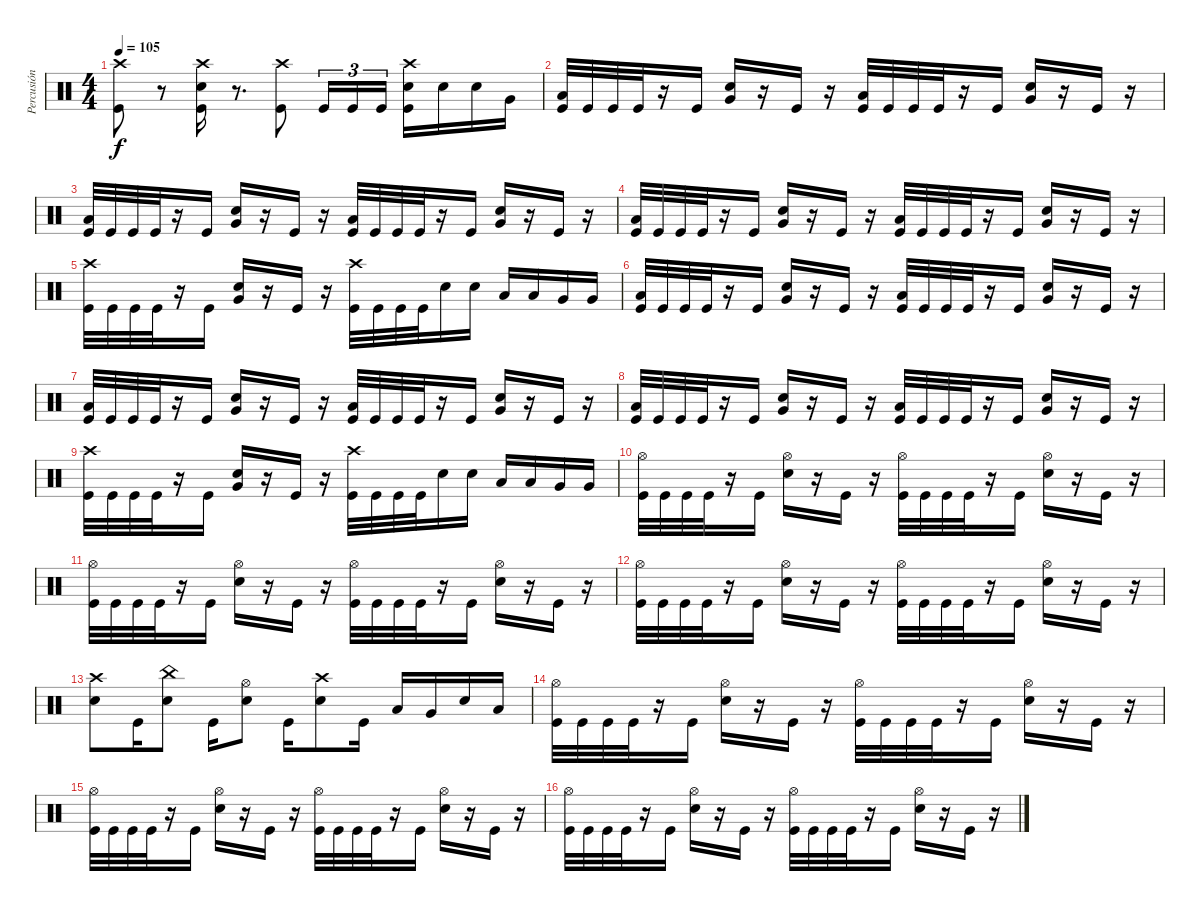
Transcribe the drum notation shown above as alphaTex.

\track ("Percusión" "Percusión") {instrument percussion}
\staff {score}
\articulation defaults
\ts (4 4)
\tempo 105
\clef neutral
\ks c
("Crash high (hit)" "Kick (hit)").8{dy f} r.8 ("Crash high (hit)" "Snare (hit) 2" "Kick (hit)").16 r.8{d} ("Crash high (hit)" "Kick (hit)").8 "Kick (hit)".16{tu (3 2)} "Kick (hit)".16{tu (3 2)} "Kick (hit)".16{tu (3 2)} ("Crash high (hit)" "Snare (hit) 2" "Kick (hit)").16 "Snare (hit) 2".16 "Snare (hit) 2".16 "Very Low Tom (hit)".16 |
("Low Floor Tom (hit)" "Kick (hit)").32 "Kick (hit)".32 "Kick (hit)".32 "Kick (hit)".32 r.16 "Kick (hit)".16 ("Snare (hit) 2" "Very Low Tom (hit)").16 r.16 "Kick (hit)".16 r.16 ("Low Floor Tom (hit)" "Kick (hit)").32 "Kick (hit)".32 "Kick (hit)".32 "Kick (hit)".32 r.16 "Kick (hit)".16 ("Snare (hit) 2" "Very Low Tom (hit)").16 r.16 "Kick (hit)".16 r.16 |
("Low Floor Tom (hit)" "Kick (hit)").32 "Kick (hit)".32 "Kick (hit)".32 "Kick (hit)".32 r.16 "Kick (hit)".16 ("Snare (hit) 2" "Very Low Tom (hit)").16 r.16 "Kick (hit)".16 r.16 ("Low Floor Tom (hit)" "Kick (hit)").32 "Kick (hit)".32 "Kick (hit)".32 "Kick (hit)".32 r.16 "Kick (hit)".16 ("Snare (hit) 2" "Very Low Tom (hit)").16 r.16 "Kick (hit)".16 r.16 |
("Low Floor Tom (hit)" "Kick (hit)").32 "Kick (hit)".32 "Kick (hit)".32 "Kick (hit)".32 r.16 "Kick (hit)".16 ("Snare (hit) 2" "Very Low Tom (hit)").16 r.16 "Kick (hit)".16 r.16 ("Low Floor Tom (hit)" "Kick (hit)").32 "Kick (hit)".32 "Kick (hit)".32 "Kick (hit)".32 r.16 "Kick (hit)".16 ("Snare (hit) 2" "Very Low Tom (hit)").16 r.16 "Kick (hit)".16 r.16 |
("Crash high (hit)" "Kick (hit)").32 "Kick (hit)".32 "Kick (hit)".32 "Kick (hit)".32 r.16 "Kick (hit)".16 ("Snare (hit) 2" "Very Low Tom (hit)").16 r.16 "Kick (hit)".16 r.16 ("Crash high (hit)" "Kick (hit)").32 "Kick (hit)".32 "Kick (hit)".32 "Kick (hit)".32 "Snare (hit) 2".16 "Snare (hit) 2".16 "Low Floor Tom (hit)".16 "Low Floor Tom (hit)".16 "Very Low Tom (hit)".16 "Very Low Tom (hit)".16 |
("Low Floor Tom (hit)" "Kick (hit)").32 "Kick (hit)".32 "Kick (hit)".32 "Kick (hit)".32 r.16 "Kick (hit)".16 ("Snare (hit) 2" "Very Low Tom (hit)").16 r.16 "Kick (hit)".16 r.16 ("Low Floor Tom (hit)" "Kick (hit)").32 "Kick (hit)".32 "Kick (hit)".32 "Kick (hit)".32 r.16 "Kick (hit)".16 ("Snare (hit) 2" "Very Low Tom (hit)").16 r.16 "Kick (hit)".16 r.16 |
("Low Floor Tom (hit)" "Kick (hit)").32 "Kick (hit)".32 "Kick (hit)".32 "Kick (hit)".32 r.16 "Kick (hit)".16 ("Snare (hit) 2" "Very Low Tom (hit)").16 r.16 "Kick (hit)".16 r.16 ("Low Floor Tom (hit)" "Kick (hit)").32 "Kick (hit)".32 "Kick (hit)".32 "Kick (hit)".32 r.16 "Kick (hit)".16 ("Snare (hit) 2" "Very Low Tom (hit)").16 r.16 "Kick (hit)".16 r.16 |
("Low Floor Tom (hit)" "Kick (hit)").32 "Kick (hit)".32 "Kick (hit)".32 "Kick (hit)".32 r.16 "Kick (hit)".16 ("Snare (hit) 2" "Very Low Tom (hit)").16 r.16 "Kick (hit)".16 r.16 ("Low Floor Tom (hit)" "Kick (hit)").32 "Kick (hit)".32 "Kick (hit)".32 "Kick (hit)".32 r.16 "Kick (hit)".16 ("Snare (hit) 2" "Very Low Tom (hit)").16 r.16 "Kick (hit)".16 r.16 |
("Crash high (hit)" "Kick (hit)").32 "Kick (hit)".32 "Kick (hit)".32 "Kick (hit)".32 r.16 "Kick (hit)".16 ("Snare (hit) 2" "Very Low Tom (hit)").16 r.16 "Kick (hit)".16 r.16 ("Crash high (hit)" "Kick (hit)").32 "Kick (hit)".32 "Kick (hit)".32 "Kick (hit)".32 "Snare (hit) 2".16 "Snare (hit) 2".16 "Low Floor Tom (hit)".16 "Low Floor Tom (hit)".16 "Very Low Tom (hit)".16 "Very Low Tom (hit)".16 |
("Hi-Hat (open)" "Kick (hit)").32 "Kick (hit)".32 "Kick (hit)".32 "Kick (hit)".32 r.16 "Kick (hit)".16 ("Snare (hit) 2" "Hi-Hat (open)").16 r.16 "Kick (hit)".16 r.16 ("Hi-Hat (open)" "Kick (hit)").32 "Kick (hit)".32 "Kick (hit)".32 "Kick (hit)".32 r.16 "Kick (hit)".16 ("Snare (hit) 2" "Hi-Hat (open)").16 r.16 "Kick (hit)".16 r.16 |
("Hi-Hat (open)" "Kick (hit)").32 "Kick (hit)".32 "Kick (hit)".32 "Kick (hit)".32 r.16 "Kick (hit)".16 ("Hi-Hat (open)" "Snare (hit) 2").16 r.16 "Kick (hit)".16 r.16 ("Hi-Hat (open)" "Kick (hit)").32 "Kick (hit)".32 "Kick (hit)".32 "Kick (hit)".32 r.16 "Kick (hit)".16 ("Snare (hit) 2" "Hi-Hat (open)").16 r.16 "Kick (hit)".16 r.16 |
("Hi-Hat (open)" "Kick (hit)").32 "Kick (hit)".32 "Kick (hit)".32 "Kick (hit)".32 r.16 "Kick (hit)".16 ("Snare (hit) 2" "Hi-Hat (open)").16 r.16 "Kick (hit)".16 r.16 ("Hi-Hat (open)" "Kick (hit)").32 "Kick (hit)".32 "Kick (hit)".32 "Kick (hit)".32 r.16 "Kick (hit)".16 ("Snare (hit) 2" "Hi-Hat (open)").16 r.16 "Kick (hit)".16 r.16 |
("Crash high (hit)" "Snare (hit) 2").8 "Kick (hit)".16 ("China (hit)" "Snare (hit) 2").8 "Kick (hit)".16 ("Hi-Hat (open)" "Snare (hit) 2").8 "Kick (hit)".16 ("Crash high (hit)" "Snare (hit) 2").8 "Kick (hit)".16 "Low Floor Tom (hit)".16 "Very Low Tom (hit)".16 "Snare (hit) 2".16 "Low Floor Tom (hit)".16 |
("Hi-Hat (open)" "Kick (hit)").32 "Kick (hit)".32 "Kick (hit)".32 "Kick (hit)".32 r.16 "Kick (hit)".16 ("Snare (hit) 2" "Hi-Hat (open)").16 r.16 "Kick (hit)".16 r.16 ("Hi-Hat (open)" "Kick (hit)").32 "Kick (hit)".32 "Kick (hit)".32 "Kick (hit)".32 r.16 "Kick (hit)".16 ("Snare (hit) 2" "Hi-Hat (open)").16 r.16 "Kick (hit)".16 r.16 |
("Hi-Hat (open)" "Kick (hit)").32 "Kick (hit)".32 "Kick (hit)".32 "Kick (hit)".32 r.16 "Kick (hit)".16 ("Hi-Hat (open)" "Snare (hit) 2").16 r.16 "Kick (hit)".16 r.16 ("Hi-Hat (open)" "Kick (hit)").32 "Kick (hit)".32 "Kick (hit)".32 "Kick (hit)".32 r.16 "Kick (hit)".16 ("Snare (hit) 2" "Hi-Hat (open)").16 r.16 "Kick (hit)".16 r.16 |
("Hi-Hat (open)" "Kick (hit)").32 "Kick (hit)".32 "Kick (hit)".32 "Kick (hit)".32 r.16 "Kick (hit)".16 ("Snare (hit) 2" "Hi-Hat (open)").16 r.16 "Kick (hit)".16 r.16 ("Hi-Hat (open)" "Kick (hit)").32 "Kick (hit)".32 "Kick (hit)".32 "Kick (hit)".32 r.16 "Kick (hit)".16 ("Snare (hit) 2" "Hi-Hat (open)").16 r.16 "Kick (hit)".16 r.16
